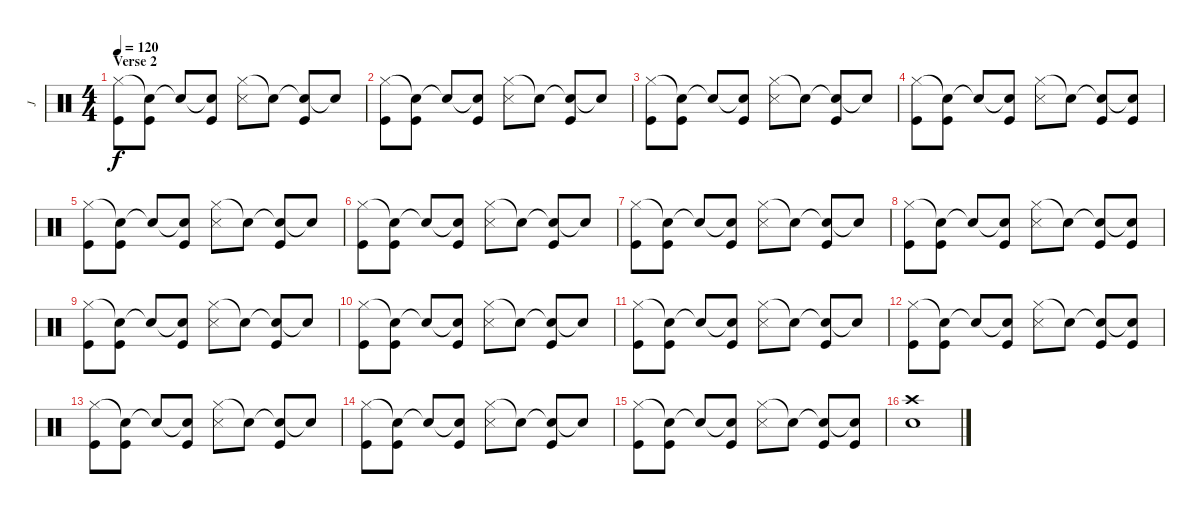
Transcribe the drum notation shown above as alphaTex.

\track ("J" "J") {instrument percussion}
\staff {score}
\articulation defaults
\ts (4 4)
\section ("" "Verse 2")
\tempo 120
\clef neutral
\ks c
("Hi-Hat (closed)" "Kick (hit)").8{dy f} ("Snare (hit)"{t} "Kick (hit)").8 "Snare (hit)"{t}.8 ("Snare (hit)"{t} "Kick (hit)").8 ("Hi-Hat (closed)" "Snare (side stick) 3").8 "Snare (hit)"{t}.8 ("Snare (hit)"{t} "Kick (hit)").8 "Snare (hit)"{t}.8 |
("Hi-Hat (closed)" "Kick (hit)").8 ("Snare (hit)"{t} "Kick (hit)").8 "Snare (hit)"{t}.8 ("Snare (hit)"{t} "Kick (hit)").8 ("Hi-Hat (closed)" "Snare (side stick) 3").8 "Snare (hit)"{t}.8 ("Snare (hit)"{t} "Kick (hit)").8 "Snare (hit)"{t}.8 |
("Hi-Hat (closed)" "Kick (hit)").8 ("Snare (hit)"{t} "Kick (hit)").8 "Snare (hit)"{t}.8 ("Snare (hit)"{t} "Kick (hit)").8 ("Hi-Hat (closed)" "Snare (side stick) 3").8 "Snare (hit)"{t}.8 ("Snare (hit)"{t} "Kick (hit)").8 "Snare (hit)"{t}.8 |
("Hi-Hat (closed)" "Kick (hit)").8 ("Snare (hit)"{t} "Kick (hit)").8 "Snare (hit)"{t}.8 ("Snare (hit)"{t} "Kick (hit)").8 ("Hi-Hat (closed)" "Snare (side stick) 3").8 "Snare (hit)"{t}.8 ("Snare (hit)"{t} "Kick (hit)").8 ("Snare (hit)"{t} "Kick (hit)").8 |
("Hi-Hat (closed)" "Kick (hit)").8 ("Snare (hit)"{t} "Kick (hit)").8 "Snare (hit)"{t}.8 ("Snare (hit)"{t} "Kick (hit)").8 ("Hi-Hat (closed)" "Snare (side stick) 3").8 "Snare (hit)"{t}.8 ("Snare (hit)"{t} "Kick (hit)").8 "Snare (hit)"{t}.8 |
("Hi-Hat (closed)" "Kick (hit)").8 ("Snare (hit)"{t} "Kick (hit)").8 "Snare (hit)"{t}.8 ("Snare (hit)"{t} "Kick (hit)").8 ("Hi-Hat (closed)" "Snare (side stick) 3").8 "Snare (hit)"{t}.8 ("Snare (hit)"{t} "Kick (hit)").8 "Snare (hit)"{t}.8 |
("Hi-Hat (closed)" "Kick (hit)").8 ("Snare (hit)"{t} "Kick (hit)").8 "Snare (hit)"{t}.8 ("Snare (hit)"{t} "Kick (hit)").8 ("Hi-Hat (closed)" "Snare (side stick) 3").8 "Snare (hit)"{t}.8 ("Snare (hit)"{t} "Kick (hit)").8 "Snare (hit)"{t}.8 |
("Hi-Hat (closed)" "Kick (hit)").8 ("Snare (hit)"{t} "Kick (hit)").8 "Snare (hit)"{t}.8 ("Snare (hit)"{t} "Kick (hit)").8 ("Hi-Hat (closed)" "Snare (side stick) 3").8 "Snare (hit)"{t}.8 ("Snare (hit)"{t} "Kick (hit)").8 ("Snare (hit)"{t} "Kick (hit)").8 |
("Hi-Hat (closed)" "Kick (hit)").8 ("Snare (hit)"{t} "Kick (hit)").8 "Snare (hit)"{t}.8 ("Snare (hit)"{t} "Kick (hit)").8 ("Hi-Hat (closed)" "Snare (side stick) 3").8 "Snare (hit)"{t}.8 ("Snare (hit)"{t} "Kick (hit)").8 "Snare (hit)"{t}.8 |
("Hi-Hat (closed)" "Kick (hit)").8 ("Snare (hit)"{t} "Kick (hit)").8 "Snare (hit)"{t}.8 ("Snare (hit)"{t} "Kick (hit)").8 ("Hi-Hat (closed)" "Snare (side stick) 3").8 "Snare (hit)"{t}.8 ("Snare (hit)"{t} "Kick (hit)").8 "Snare (hit)"{t}.8 |
("Hi-Hat (closed)" "Kick (hit)").8 ("Snare (hit)"{t} "Kick (hit)").8 "Snare (hit)"{t}.8 ("Snare (hit)"{t} "Kick (hit)").8 ("Hi-Hat (closed)" "Snare (side stick) 3").8 "Snare (hit)"{t}.8 ("Snare (hit)"{t} "Kick (hit)").8 "Snare (hit)"{t}.8 |
("Hi-Hat (closed)" "Kick (hit)").8 ("Snare (hit)"{t} "Kick (hit)").8 "Snare (hit)"{t}.8 ("Snare (hit)"{t} "Kick (hit)").8 ("Hi-Hat (closed)" "Snare (side stick) 3").8 "Snare (hit)"{t}.8 ("Snare (hit)"{t} "Kick (hit)").8 ("Snare (hit)"{t} "Kick (hit)").8 |
("Hi-Hat (closed)" "Kick (hit)").8 ("Snare (hit)"{t} "Kick (hit)").8 "Snare (hit)"{t}.8 ("Snare (hit)"{t} "Kick (hit)").8 ("Hi-Hat (closed)" "Snare (side stick) 3").8 "Snare (hit)"{t}.8 ("Snare (hit)"{t} "Kick (hit)").8 "Snare (hit)"{t}.8 |
("Hi-Hat (closed)" "Kick (hit)").8 ("Snare (hit)"{t} "Kick (hit)").8 "Snare (hit)"{t}.8 ("Snare (hit)"{t} "Kick (hit)").8 ("Hi-Hat (closed)" "Snare (side stick) 3").8 "Snare (hit)"{t}.8 ("Snare (hit)"{t} "Kick (hit)").8 "Snare (hit)"{t}.8 |
("Hi-Hat (closed)" "Kick (hit)").8 ("Snare (hit)"{t} "Kick (hit)").8 "Snare (hit)"{t}.8 ("Snare (hit)"{t} "Kick (hit)").8 ("Hi-Hat (closed)" "Snare (side stick) 3").8 "Snare (hit)"{t}.8 ("Snare (hit)"{t} "Kick (hit)").8 ("Snare (hit)"{t} "Kick (hit)").8 |
("Crash high (hit)" "Electric Snare (hit)").1
